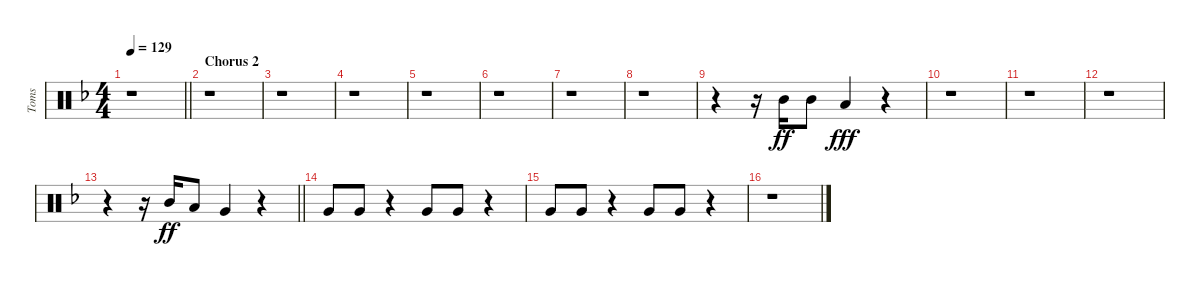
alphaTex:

\track ("Toms" "Toms") {instrument percussion}
\staff {score}
\articulation defaults
\ts (4 4)
\tempo 129
\clef neutral
\barLineRight lightlight
\ks dminor
r.1{dy ff} |
\section ("" "Chorus 2")
r.1 |
r.1 |
r.1 |
r.1 |
r.1 |
r.1 |
r.1 |
r.4 r.16 "Mid Tom (hit)".16{balance 11} "Mid Tom (hit)".8 "Low Floor Tom (hit)".4{dy fff balance 5} r.4 |
r.1 |
r.1 |
r.1 |
\barLineRight lightlight
r.4 r.16{balance 12} "Mid Tom (hit)".16{dy ff} "Low Tom (hit)".8{balance 6} "Very Low Tom (hit)".4{balance 4} r.4 |
"Very Low Tom (hit)".8 "Very Low Tom (hit)".8 r.4 "Very Low Tom (hit)".8 "Very Low Tom (hit)".8 r.4 |
"Very Low Tom (hit)".8 "Very Low Tom (hit)".8 r.4 "Very Low Tom (hit)".8 "Very Low Tom (hit)".8 r.4 |
r.1
